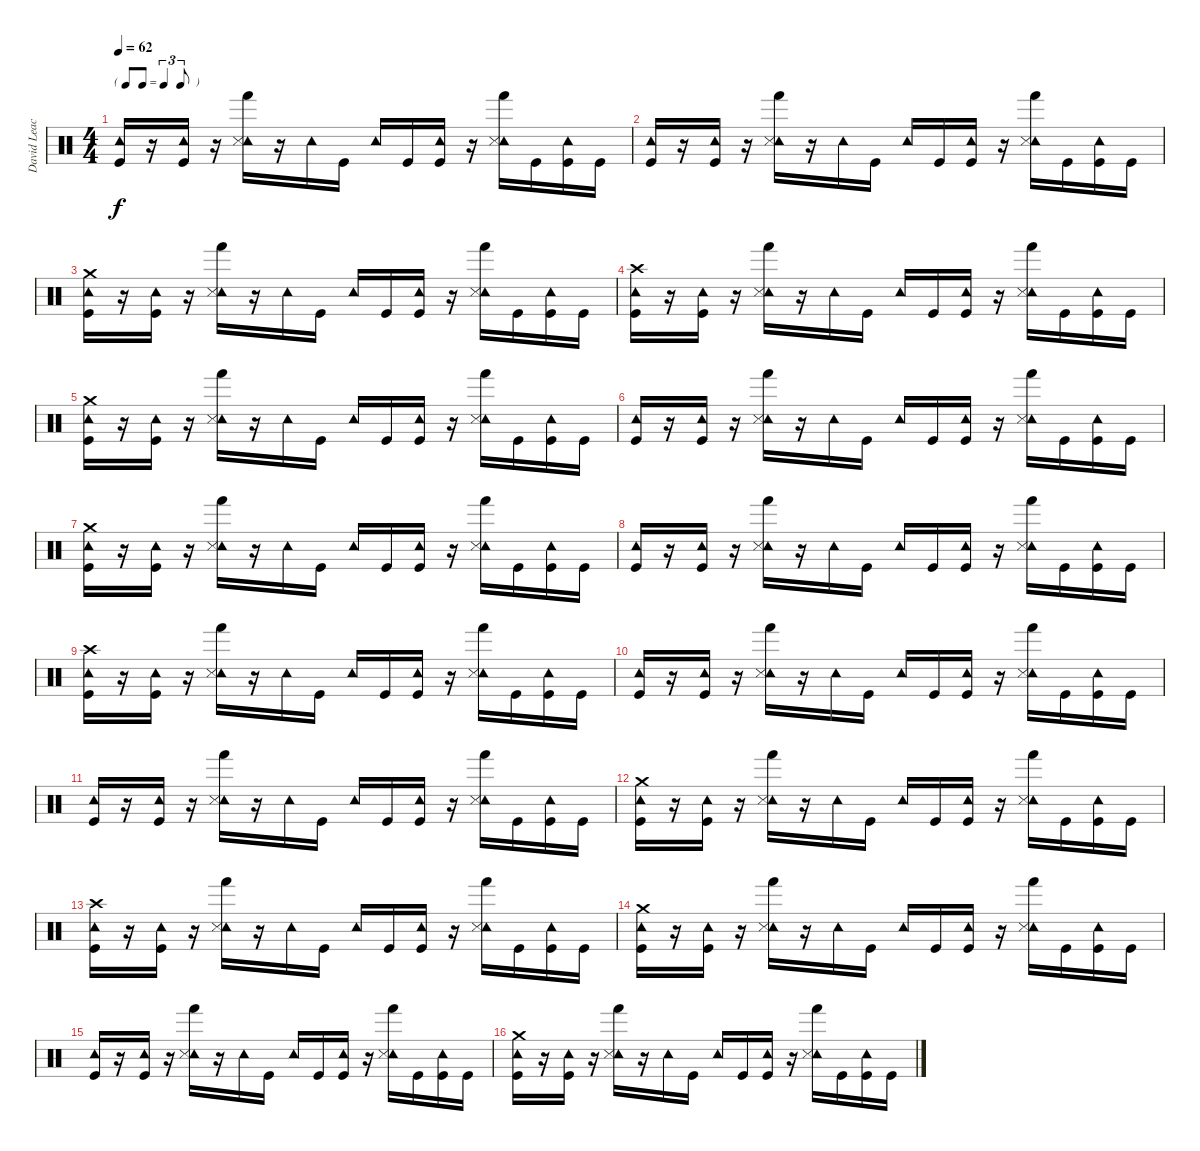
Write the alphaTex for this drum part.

\track ("David Leach-(Percussions)" "David Leac") {instrument percussion}
\staff {score}
\articulation defaults
\ts (4 4)
\tf triplet8th
\tempo 62
\clef neutral
\ks c
("Tambourine (hit)" "Kick (hit)").16{dy f} r.16 ("Tambourine (hit)" "Kick (hit)").16 r.16 ("Tambourine (hit)" "Snare (side stick) 3" "Hand (hit)").16 r.16 "Tambourine (hit)".16 "Kick (hit)".16 "Tambourine (hit)".16 "Kick (hit)".16 ("Tambourine (hit)" "Kick (hit)").16 r.16 ("Tambourine (hit)" "Snare (side stick) 3" "Hand (hit)").16 "Kick (hit)".16 ("Tambourine (hit)" "Kick (hit)").16 "Kick (hit)".16 |
("Tambourine (hit)" "Kick (hit)").16 r.16 ("Tambourine (hit)" "Kick (hit)").16 r.16 ("Tambourine (hit)" "Snare (side stick) 3" "Hand (hit)").16 r.16 "Tambourine (hit)".16 "Kick (hit)".16 "Tambourine (hit)".16 "Kick (hit)".16 ("Tambourine (hit)" "Kick (hit)").16 r.16 ("Tambourine (hit)" "Snare (side stick) 3" "Hand (hit)").16 "Kick (hit)".16 ("Tambourine (hit)" "Kick (hit)").16 "Kick (hit)".16 |
("Tambourine (hit)" "Crash medium (hit)" "Kick (hit)").16 r.16 ("Tambourine (hit)" "Kick (hit)").16 r.16 ("Tambourine (hit)" "Snare (side stick) 3" "Hand (hit)").16 r.16 "Tambourine (hit)".16 "Kick (hit)".16 "Tambourine (hit)".16 "Kick (hit)".16 ("Tambourine (hit)" "Kick (hit)").16 r.16 ("Tambourine (hit)" "Snare (side stick) 3" "Hand (hit)").16 "Kick (hit)".16 ("Tambourine (hit)" "Kick (hit)").16 "Kick (hit)".16 |
("Tambourine (hit)" "Crash high (hit)" "Kick (hit)").16 r.16 ("Tambourine (hit)" "Kick (hit)").16 r.16 ("Tambourine (hit)" "Snare (side stick) 3" "Hand (hit)").16 r.16 "Tambourine (hit)".16 "Kick (hit)".16 "Tambourine (hit)".16 "Kick (hit)".16 ("Tambourine (hit)" "Kick (hit)").16 r.16 ("Tambourine (hit)" "Snare (side stick) 3" "Hand (hit)").16 "Kick (hit)".16 ("Tambourine (hit)" "Kick (hit)").16 "Kick (hit)".16 |
("Tambourine (hit)" "Crash medium (hit)" "Kick (hit)").16 r.16 ("Tambourine (hit)" "Kick (hit)").16 r.16 ("Tambourine (hit)" "Snare (side stick) 3" "Hand (hit)").16 r.16 "Tambourine (hit)".16 "Kick (hit)".16 "Tambourine (hit)".16 "Kick (hit)".16 ("Tambourine (hit)" "Kick (hit)").16 r.16 ("Tambourine (hit)" "Snare (side stick) 3" "Hand (hit)").16 "Kick (hit)".16 ("Tambourine (hit)" "Kick (hit)").16 "Kick (hit)".16 |
("Tambourine (hit)" "Kick (hit)").16 r.16 ("Tambourine (hit)" "Kick (hit)").16 r.16 ("Tambourine (hit)" "Snare (side stick) 3" "Hand (hit)").16 r.16 "Tambourine (hit)".16 "Kick (hit)".16 "Tambourine (hit)".16 "Kick (hit)".16 ("Tambourine (hit)" "Kick (hit)").16 r.16 ("Tambourine (hit)" "Snare (side stick) 3" "Hand (hit)").16 "Kick (hit)".16 ("Tambourine (hit)" "Kick (hit)").16 "Kick (hit)".16 |
("Tambourine (hit)" "Crash medium (hit)" "Kick (hit)").16 r.16 ("Tambourine (hit)" "Kick (hit)").16 r.16 ("Tambourine (hit)" "Snare (side stick) 3" "Hand (hit)").16 r.16 "Tambourine (hit)".16 "Kick (hit)".16 "Tambourine (hit)".16 "Kick (hit)".16 ("Tambourine (hit)" "Kick (hit)").16 r.16 ("Tambourine (hit)" "Snare (side stick) 3" "Hand (hit)").16 "Kick (hit)".16 ("Tambourine (hit)" "Kick (hit)").16 "Kick (hit)".16 |
("Tambourine (hit)" "Kick (hit)").16 r.16 ("Tambourine (hit)" "Kick (hit)").16 r.16 ("Tambourine (hit)" "Snare (side stick) 3" "Hand (hit)").16 r.16 "Tambourine (hit)".16 "Kick (hit)".16 "Tambourine (hit)".16 "Kick (hit)".16 ("Tambourine (hit)" "Kick (hit)").16 r.16 ("Tambourine (hit)" "Snare (side stick) 3" "Hand (hit)").16 "Kick (hit)".16 ("Tambourine (hit)" "Kick (hit)").16 "Kick (hit)".16 |
("Tambourine (hit)" "Crash high (hit)" "Kick (hit)").16 r.16 ("Tambourine (hit)" "Kick (hit)").16 r.16 ("Tambourine (hit)" "Snare (side stick) 3" "Hand (hit)").16 r.16 "Tambourine (hit)".16 "Kick (hit)".16 "Tambourine (hit)".16 "Kick (hit)".16 ("Tambourine (hit)" "Kick (hit)").16 r.16 ("Tambourine (hit)" "Snare (side stick) 3" "Hand (hit)").16 "Kick (hit)".16 ("Tambourine (hit)" "Kick (hit)").16 "Kick (hit)".16 |
("Tambourine (hit)" "Kick (hit)").16 r.16 ("Tambourine (hit)" "Kick (hit)").16 r.16 ("Tambourine (hit)" "Snare (side stick) 3" "Hand (hit)").16 r.16 "Tambourine (hit)".16 "Kick (hit)".16 "Tambourine (hit)".16 "Kick (hit)".16 ("Tambourine (hit)" "Kick (hit)").16 r.16 ("Tambourine (hit)" "Snare (side stick) 3" "Hand (hit)").16 "Kick (hit)".16 ("Tambourine (hit)" "Kick (hit)").16 "Kick (hit)".16 |
("Tambourine (hit)" "Kick (hit)").16 r.16 ("Tambourine (hit)" "Kick (hit)").16 r.16 ("Tambourine (hit)" "Snare (side stick) 3" "Hand (hit)").16 r.16 "Tambourine (hit)".16 "Kick (hit)".16 "Tambourine (hit)".16 "Kick (hit)".16 ("Tambourine (hit)" "Kick (hit)").16 r.16 ("Tambourine (hit)" "Snare (side stick) 3" "Hand (hit)").16 "Kick (hit)".16 ("Tambourine (hit)" "Kick (hit)").16 "Kick (hit)".16 |
("Tambourine (hit)" "Crash medium (hit)" "Kick (hit)").16 r.16 ("Tambourine (hit)" "Kick (hit)").16 r.16 ("Tambourine (hit)" "Snare (side stick) 3" "Hand (hit)").16 r.16 "Tambourine (hit)".16 "Kick (hit)".16 "Tambourine (hit)".16 "Kick (hit)".16 ("Tambourine (hit)" "Kick (hit)").16 r.16 ("Tambourine (hit)" "Snare (side stick) 3" "Hand (hit)").16 "Kick (hit)".16 ("Tambourine (hit)" "Kick (hit)").16 "Kick (hit)".16 |
("Tambourine (hit)" "Crash high (hit)" "Kick (hit)").16 r.16 ("Tambourine (hit)" "Kick (hit)").16 r.16 ("Tambourine (hit)" "Snare (side stick) 3" "Hand (hit)").16 r.16 "Tambourine (hit)".16 "Kick (hit)".16 "Tambourine (hit)".16 "Kick (hit)".16 ("Tambourine (hit)" "Kick (hit)").16 r.16 ("Tambourine (hit)" "Snare (side stick) 3" "Hand (hit)").16 "Kick (hit)".16 ("Tambourine (hit)" "Kick (hit)").16 "Kick (hit)".16 |
("Tambourine (hit)" "Crash medium (hit)" "Kick (hit)").16 r.16 ("Tambourine (hit)" "Kick (hit)").16 r.16 ("Tambourine (hit)" "Snare (side stick) 3" "Hand (hit)").16 r.16 "Tambourine (hit)".16 "Kick (hit)".16 "Tambourine (hit)".16 "Kick (hit)".16 ("Tambourine (hit)" "Kick (hit)").16 r.16 ("Tambourine (hit)" "Snare (side stick) 3" "Hand (hit)").16 "Kick (hit)".16 ("Tambourine (hit)" "Kick (hit)").16 "Kick (hit)".16 |
("Tambourine (hit)" "Kick (hit)").16 r.16 ("Tambourine (hit)" "Kick (hit)").16 r.16 ("Tambourine (hit)" "Snare (side stick) 3" "Hand (hit)").16 r.16 "Tambourine (hit)".16 "Kick (hit)".16 "Tambourine (hit)".16 "Kick (hit)".16 ("Tambourine (hit)" "Kick (hit)").16 r.16 ("Tambourine (hit)" "Snare (side stick) 3" "Hand (hit)").16 "Kick (hit)".16 ("Tambourine (hit)" "Kick (hit)").16 "Kick (hit)".16 |
("Tambourine (hit)" "Crash medium (hit)" "Kick (hit)").16 r.16 ("Tambourine (hit)" "Kick (hit)").16 r.16 ("Tambourine (hit)" "Snare (side stick) 3" "Hand (hit)").16 r.16 "Tambourine (hit)".16 "Kick (hit)".16 "Tambourine (hit)".16 "Kick (hit)".16 ("Tambourine (hit)" "Kick (hit)").16 r.16 ("Tambourine (hit)" "Snare (side stick) 3" "Hand (hit)").16 "Kick (hit)".16 ("Tambourine (hit)" "Kick (hit)").16 "Kick (hit)".16
